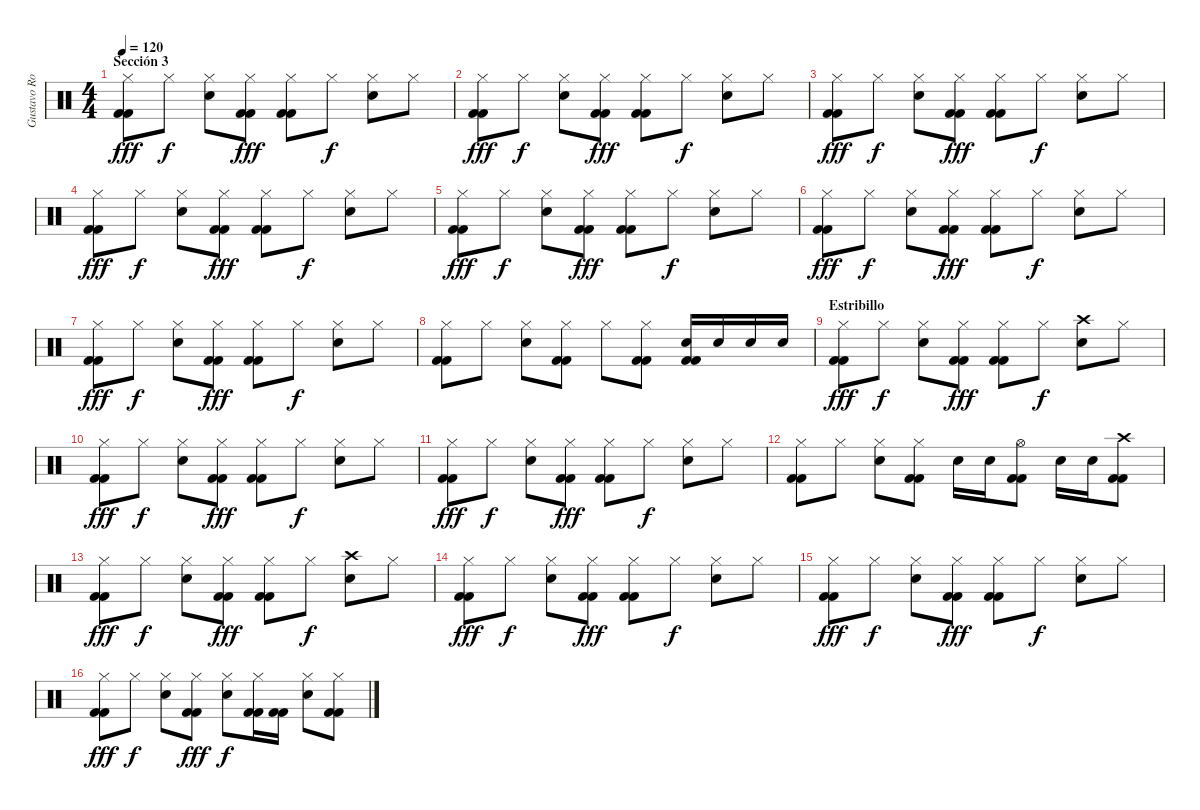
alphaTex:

\track ("Gustavo Rowek" "Gustavo Ro") {instrument percussion}
\staff {score}
\articulation defaults
\ts (4 4)
\section ("" "Sección 3")
\tempo 120
\clef neutral
\ks c
("Kick (hit) 2" "Kick (hit) 2" "Hi-Hat (closed)").8{dy fff} "Hi-Hat (closed)".8{dy f} ("Snare (hit) 2" "Hi-Hat (closed)").8 ("Kick (hit) 2" "Kick (hit) 2" "Hi-Hat (closed)").8{dy fff} ("Kick (hit) 2" "Kick (hit) 2" "Hi-Hat (closed)").8 "Hi-Hat (closed)".8{dy f} ("Snare (hit) 2" "Hi-Hat (closed)").8 "Hi-Hat (closed)".8 |
("Kick (hit) 2" "Kick (hit) 2" "Hi-Hat (closed)").8{dy fff} "Hi-Hat (closed)".8{dy f} ("Snare (hit) 2" "Hi-Hat (closed)").8 ("Kick (hit) 2" "Kick (hit) 2" "Hi-Hat (closed)").8{dy fff} ("Kick (hit) 2" "Kick (hit) 2" "Hi-Hat (closed)").8 "Hi-Hat (closed)".8{dy f} ("Snare (hit) 2" "Hi-Hat (closed)").8 "Hi-Hat (closed)".8 |
("Kick (hit) 2" "Kick (hit) 2" "Hi-Hat (closed)").8{dy fff} "Hi-Hat (closed)".8{dy f} ("Snare (hit) 2" "Hi-Hat (closed)").8 ("Kick (hit) 2" "Kick (hit) 2" "Hi-Hat (closed)").8{dy fff} ("Kick (hit) 2" "Kick (hit) 2" "Hi-Hat (closed)").8 "Hi-Hat (closed)".8{dy f} ("Snare (hit) 2" "Hi-Hat (closed)").8 "Hi-Hat (closed)".8 |
("Kick (hit) 2" "Kick (hit) 2" "Hi-Hat (closed)").8{dy fff} "Hi-Hat (closed)".8{dy f} ("Snare (hit) 2" "Hi-Hat (closed)").8 ("Kick (hit) 2" "Kick (hit) 2" "Hi-Hat (closed)").8{dy fff} ("Kick (hit) 2" "Kick (hit) 2" "Hi-Hat (closed)").8 "Hi-Hat (closed)".8{dy f} ("Snare (hit) 2" "Hi-Hat (closed)").8 "Hi-Hat (closed)".8 |
("Kick (hit) 2" "Kick (hit) 2" "Hi-Hat (closed)").8{dy fff} "Hi-Hat (closed)".8{dy f} ("Snare (hit) 2" "Hi-Hat (closed)").8 ("Kick (hit) 2" "Kick (hit) 2" "Hi-Hat (closed)").8{dy fff} ("Kick (hit) 2" "Kick (hit) 2" "Hi-Hat (closed)").8 "Hi-Hat (closed)".8{dy f} ("Snare (hit) 2" "Hi-Hat (closed)").8 "Hi-Hat (closed)".8 |
("Kick (hit) 2" "Kick (hit) 2" "Hi-Hat (closed)").8{dy fff} "Hi-Hat (closed)".8{dy f} ("Snare (hit) 2" "Hi-Hat (closed)").8 ("Kick (hit) 2" "Kick (hit) 2" "Hi-Hat (closed)").8{dy fff} ("Kick (hit) 2" "Kick (hit) 2" "Hi-Hat (closed)").8 "Hi-Hat (closed)".8{dy f} ("Snare (hit) 2" "Hi-Hat (closed)").8 "Hi-Hat (closed)".8 |
("Kick (hit) 2" "Kick (hit) 2" "Hi-Hat (closed)").8{dy fff} "Hi-Hat (closed)".8{dy f} ("Snare (hit) 2" "Hi-Hat (closed)").8 ("Kick (hit) 2" "Kick (hit) 2" "Hi-Hat (closed)").8{dy fff} ("Kick (hit) 2" "Kick (hit) 2" "Hi-Hat (closed)").8 "Hi-Hat (closed)".8{dy f} ("Snare (hit) 2" "Hi-Hat (closed)").8 "Hi-Hat (closed)".8 |
("Kick (hit) 2" "Kick (hit) 2" "Hi-Hat (closed)").8 "Hi-Hat (closed)".8 ("Snare (hit) 2" "Hi-Hat (closed)").8 ("Kick (hit) 2" "Kick (hit) 2" "Hi-Hat (closed)").8 "Hi-Hat (closed)".8 ("Kick (hit) 2" "Kick (hit) 2" "Hi-Hat (closed)").8 ("Kick (hit) 2" "Kick (hit) 2" "Snare (hit) 2").16 "Snare (hit) 2".16 "Snare (hit) 2".16 "Snare (hit) 2".16 |
\section ("" "Estribillo")
("Kick (hit) 2" "Kick (hit) 2" "Hi-Hat (closed)").8{dy fff} "Hi-Hat (closed)".8{dy f} ("Snare (hit) 2" "Hi-Hat (closed)").8 ("Kick (hit) 2" "Kick (hit) 2" "Hi-Hat (closed)").8{dy fff} ("Kick (hit) 2" "Kick (hit) 2" "Hi-Hat (closed)").8 "Hi-Hat (closed)".8{dy f} ("Snare (hit) 2" "Crash high (hit)").8 "Hi-Hat (closed)".8 |
("Kick (hit) 2" "Kick (hit) 2" "Hi-Hat (closed)").8{dy fff} "Hi-Hat (closed)".8{dy f} ("Snare (hit) 2" "Hi-Hat (closed)").8 ("Kick (hit) 2" "Kick (hit) 2" "Hi-Hat (closed)").8{dy fff} ("Kick (hit) 2" "Kick (hit) 2" "Hi-Hat (closed)").8 "Hi-Hat (closed)".8{dy f} ("Snare (hit) 2" "Hi-Hat (closed)").8 "Hi-Hat (closed)".8 |
("Kick (hit) 2" "Kick (hit) 2" "Hi-Hat (closed)").8{dy fff} "Hi-Hat (closed)".8{dy f} ("Snare (hit) 2" "Hi-Hat (closed)").8 ("Kick (hit) 2" "Kick (hit) 2" "Hi-Hat (closed)").8{dy fff} ("Kick (hit) 2" "Kick (hit) 2" "Hi-Hat (closed)").8 "Hi-Hat (closed)".8{dy f} ("Snare (hit) 2" "Hi-Hat (closed)").8 "Hi-Hat (closed)".8 |
("Kick (hit) 2" "Kick (hit) 2" "Hi-Hat (closed)").8 "Hi-Hat (closed)".8 ("Snare (hit) 2" "Hi-Hat (closed)").8 ("Kick (hit) 2" "Kick (hit) 2" "Hi-Hat (closed)").8 "Snare (hit) 2".16 "Snare (hit) 2".16 ("Kick (hit) 2" "Kick (hit) 2" "Hi-Hat (open)").8 "Snare (hit) 2".16 "Snare (hit) 2".16 ("Kick (hit) 2" "Kick (hit) 2" "Crash high (hit)").8 |
("Kick (hit) 2" "Kick (hit) 2" "Hi-Hat (closed)").8{dy fff} "Hi-Hat (closed)".8{dy f} ("Snare (hit) 2" "Hi-Hat (closed)").8 ("Kick (hit) 2" "Kick (hit) 2" "Hi-Hat (closed)").8{dy fff} ("Kick (hit) 2" "Kick (hit) 2" "Hi-Hat (closed)").8 "Hi-Hat (closed)".8{dy f} ("Snare (hit) 2" "Crash high (hit)").8 "Hi-Hat (closed)".8 |
("Kick (hit) 2" "Kick (hit) 2" "Hi-Hat (closed)").8{dy fff} "Hi-Hat (closed)".8{dy f} ("Snare (hit) 2" "Hi-Hat (closed)").8 ("Kick (hit) 2" "Kick (hit) 2" "Hi-Hat (closed)").8{dy fff} ("Kick (hit) 2" "Kick (hit) 2" "Hi-Hat (closed)").8 "Hi-Hat (closed)".8{dy f} ("Snare (hit) 2" "Hi-Hat (closed)").8 "Hi-Hat (closed)".8 |
("Kick (hit) 2" "Kick (hit) 2" "Hi-Hat (closed)").8{dy fff} "Hi-Hat (closed)".8{dy f} ("Snare (hit) 2" "Hi-Hat (closed)").8 ("Kick (hit) 2" "Kick (hit) 2" "Hi-Hat (closed)").8{dy fff} ("Kick (hit) 2" "Kick (hit) 2" "Hi-Hat (closed)").8 "Hi-Hat (closed)".8{dy f} ("Snare (hit) 2" "Hi-Hat (closed)").8 "Hi-Hat (closed)".8 |
("Kick (hit) 2" "Kick (hit) 2" "Hi-Hat (closed)").8{dy fff} "Hi-Hat (closed)".8{dy f} ("Snare (hit) 2" "Hi-Hat (closed)").8 ("Kick (hit) 2" "Kick (hit) 2" "Hi-Hat (closed)").8{dy fff} ("Snare (hit) 2" "Hi-Hat (closed)").8{dy f} ("Kick (hit) 2" "Kick (hit) 2" "Hi-Hat (closed)").16 ("Kick (hit) 2" "Kick (hit) 2").16 ("Snare (hit) 2" "Hi-Hat (closed)").8 ("Kick (hit) 2" "Kick (hit) 2" "Hi-Hat (closed)").8
